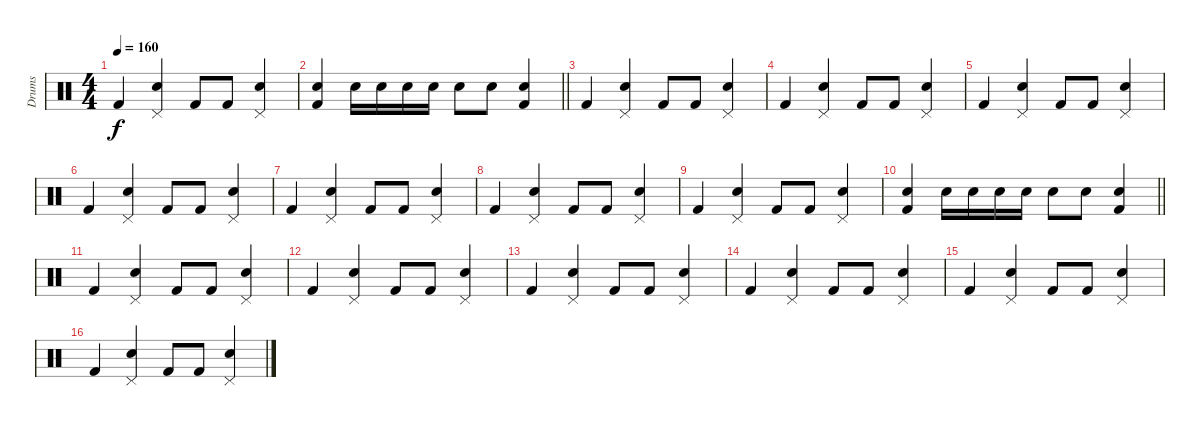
\track ("Drums" "Drums") {instrument percussion}
\staff {score}
\articulation defaults
\ts (4 4)
\tempo 160
\clef neutral
\ks c "Kick (hit) 2".4{dy f}
("Pedal Hi-Hat (hit)" "Electric Snare (hit)").4 "Kick (hit) 2".8 "Kick (hit) 2".8 ("Pedal Hi-Hat (hit)" "Electric Snare (hit)").4 |
\barLineRight lightlight
("Kick (hit) 2" "Electric Snare (hit)").4 "Electric Snare (hit)".16 "Electric Snare (hit)".16 "Electric Snare (hit)".16 "Electric Snare (hit)".16 "Electric Snare (hit)".8 "Electric Snare (hit)".8 ("Kick (hit) 2" "Electric Snare (hit)").4 |
"Kick (hit) 2".4 ("Pedal Hi-Hat (hit)" "Electric Snare (hit)").4 "Kick (hit) 2".8 "Kick (hit) 2".8 ("Pedal Hi-Hat (hit)" "Electric Snare (hit)").4 |
"Kick (hit) 2".4 ("Pedal Hi-Hat (hit)" "Electric Snare (hit)").4 "Kick (hit) 2".8 "Kick (hit) 2".8 ("Pedal Hi-Hat (hit)" "Electric Snare (hit)").4 |
"Kick (hit) 2".4 ("Pedal Hi-Hat (hit)" "Electric Snare (hit)").4 "Kick (hit) 2".8 "Kick (hit) 2".8 ("Pedal Hi-Hat (hit)" "Electric Snare (hit)").4 |
"Kick (hit) 2".4 ("Pedal Hi-Hat (hit)" "Electric Snare (hit)").4 "Kick (hit) 2".8 "Kick (hit) 2".8 ("Pedal Hi-Hat (hit)" "Electric Snare (hit)").4 |
"Kick (hit) 2".4 ("Pedal Hi-Hat (hit)" "Electric Snare (hit)").4 "Kick (hit) 2".8 "Kick (hit) 2".8 ("Pedal Hi-Hat (hit)" "Electric Snare (hit)").4 |
"Kick (hit) 2".4 ("Pedal Hi-Hat (hit)" "Electric Snare (hit)").4 "Kick (hit) 2".8 "Kick (hit) 2".8 ("Pedal Hi-Hat (hit)" "Electric Snare (hit)").4 |
"Kick (hit) 2".4 ("Pedal Hi-Hat (hit)" "Electric Snare (hit)").4 "Kick (hit) 2".8 "Kick (hit) 2".8 ("Pedal Hi-Hat (hit)" "Electric Snare (hit)").4 |
\barLineRight lightlight
("Kick (hit) 2" "Electric Snare (hit)").4 "Electric Snare (hit)".16 "Electric Snare (hit)".16 "Electric Snare (hit)".16 "Electric Snare (hit)".16 "Electric Snare (hit)".8 "Electric Snare (hit)".8 ("Kick (hit) 2" "Electric Snare (hit)").4 |
"Kick (hit) 2".4 ("Pedal Hi-Hat (hit)" "Electric Snare (hit)").4 "Kick (hit) 2".8 "Kick (hit) 2".8 ("Pedal Hi-Hat (hit)" "Electric Snare (hit)").4 |
"Kick (hit) 2".4 ("Pedal Hi-Hat (hit)" "Electric Snare (hit)").4 "Kick (hit) 2".8 "Kick (hit) 2".8 ("Pedal Hi-Hat (hit)" "Electric Snare (hit)").4 |
"Kick (hit) 2".4 ("Pedal Hi-Hat (hit)" "Electric Snare (hit)").4 "Kick (hit) 2".8 "Kick (hit) 2".8 ("Pedal Hi-Hat (hit)" "Electric Snare (hit)").4 |
"Kick (hit) 2".4 ("Pedal Hi-Hat (hit)" "Electric Snare (hit)").4 "Kick (hit) 2".8 "Kick (hit) 2".8 ("Pedal Hi-Hat (hit)" "Electric Snare (hit)").4 |
"Kick (hit) 2".4 ("Pedal Hi-Hat (hit)" "Electric Snare (hit)").4 "Kick (hit) 2".8 "Kick (hit) 2".8 ("Pedal Hi-Hat (hit)" "Electric Snare (hit)").4 |
"Kick (hit) 2".4 ("Pedal Hi-Hat (hit)" "Electric Snare (hit)").4 "Kick (hit) 2".8 "Kick (hit) 2".8 ("Pedal Hi-Hat (hit)" "Electric Snare (hit)").4
